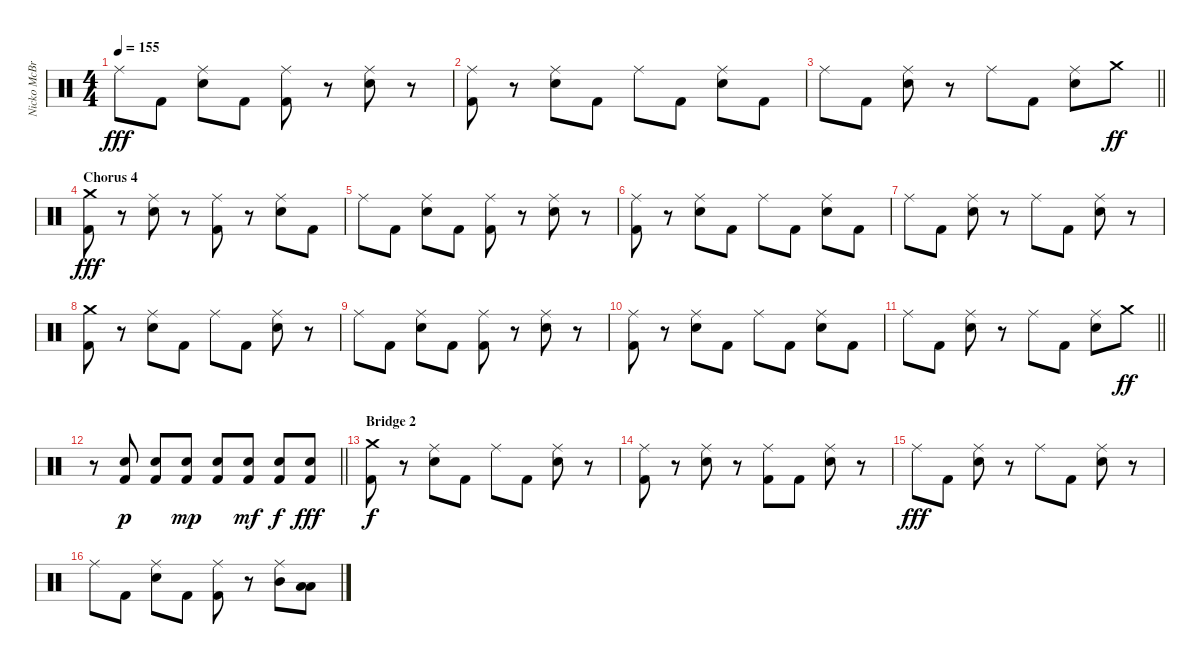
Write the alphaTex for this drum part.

\track ("Nicko McBrain" "Nicko McBr") {instrument percussion}
\staff {score}
\articulation defaults
\ts (4 4)
\tempo 155
\clef neutral
\ks c "Ride (middle)".8{dy fff} "Kick (hit) 2".8
("Ride (middle)" "Snare (hit) 2").8 "Kick (hit) 2".8 ("Ride (middle)" "Kick (hit) 2").8 r.8 ("Ride (middle)" "Snare (hit) 2").8 r.8 |
("Ride (middle)" "Kick (hit) 2").8 r.8 ("Ride (middle)" "Snare (hit) 2").8 "Kick (hit) 2".8 "Ride (middle)".8 "Kick (hit) 2".8 ("Ride (middle)" "Snare (hit) 2").8 "Kick (hit) 2".8 |
\barLineRight lightlight "Ride (middle)".8 "Kick (hit) 2".8
("Ride (middle)" "Snare (hit) 2").8 r.8 "Ride (middle)".8 "Kick (hit) 2".8 ("Ride (middle)" "Snare (hit) 2").8 "Crash medium (hit)".8{dy ff} |
\section ("" "Chorus 4")
("Crash medium (hit)" "Kick (hit) 2").8{dy fff} r.8 ("Ride (middle)" "Snare (hit) 2").8 r.8 ("Ride (middle)" "Kick (hit) 2").8 r.8 ("Ride (middle)" "Snare (hit) 2").8 "Kick (hit) 2".8 |
"Ride (middle)".8 "Kick (hit) 2".8 ("Ride (middle)" "Snare (hit) 2").8 "Kick (hit) 2".8 ("Ride (middle)" "Kick (hit) 2").8 r.8 ("Ride (middle)" "Snare (hit) 2").8 r.8 |
("Ride (middle)" "Kick (hit) 2").8 r.8 ("Ride (middle)" "Snare (hit) 2").8 "Kick (hit) 2".8 "Ride (middle)".8 "Kick (hit) 2".8 ("Ride (middle)" "Snare (hit) 2").8 "Kick (hit) 2".8 |
"Ride (middle)".8 "Kick (hit) 2".8 ("Ride (middle)" "Snare (hit) 2").8 r.8 "Ride (middle)".8 "Kick (hit) 2".8 ("Ride (middle)" "Snare (hit) 2").8 r.8 |
("Crash medium (hit)" "Kick (hit) 2").8 r.8 ("Ride (middle)" "Snare (hit) 2").8 "Kick (hit) 2".8 "Ride (middle)".8 "Kick (hit) 2".8 ("Ride (middle)" "Snare (hit) 2").8 r.8 |
"Ride (middle)".8 "Kick (hit) 2".8 ("Ride (middle)" "Snare (hit) 2").8 "Kick (hit) 2".8 ("Ride (middle)" "Kick (hit) 2").8 r.8 ("Ride (middle)" "Snare (hit) 2").8 r.8 |
("Ride (middle)" "Kick (hit) 2").8 r.8 ("Ride (middle)" "Snare (hit) 2").8 "Kick (hit) 2".8 "Ride (middle)".8 "Kick (hit) 2".8 ("Ride (middle)" "Snare (hit) 2").8 "Kick (hit) 2".8 |
\barLineRight lightlight "Ride (middle)".8 "Kick (hit) 2".8
("Ride (middle)" "Snare (hit) 2").8 r.8 "Ride (middle)".8 "Kick (hit) 2".8 ("Ride (middle)" "Snare (hit) 2").8 "Crash medium (hit)".8{dy ff} |
\barLineRight lightlight
r.8 ("Snare (hit) 2" "Kick (hit) 2").8{dy p} ("Snare (hit) 2" "Kick (hit) 2").8 ("Snare (hit) 2" "Kick (hit) 2").8{dy mp} ("Snare (hit) 2" "Kick (hit) 2").8 ("Snare (hit) 2" "Kick (hit) 2").8{dy mf} ("Snare (hit) 2" "Kick (hit) 2").8{dy f} ("Snare (hit) 2" "Kick (hit) 2").8{dy fff} |
\section ("" "Bridge 2")
("Crash medium (hit)" "Kick (hit) 2").8{dy f} r.8 ("Ride (middle)" "Snare (hit) 2").8 "Kick (hit) 2".8 "Ride (middle)".8 "Kick (hit) 2".8 ("Ride (middle)" "Snare (hit) 2").8 r.8 |
("Ride (middle)" "Kick (hit) 2").8 r.8 ("Ride (middle)" "Snare (hit) 2").8 r.8 ("Ride (middle)" "Kick (hit) 2").8 "Kick (hit) 2".8 ("Ride (middle)" "Snare (hit) 2").8 r.8 |
"Ride (middle)".8{dy fff} "Kick (hit) 2".8 ("Ride (middle)" "Snare (hit) 2").8 r.8 "Ride (middle)".8 "Kick (hit) 2".8 ("Ride (middle)" "Snare (hit) 2").8 r.8 |
"Ride (middle)".8 "Kick (hit) 2".8 ("Ride (middle)" "Snare (hit) 2").8 "Kick (hit) 2".8 ("Ride (middle)" "Kick (hit) 2").8 r.8 ("Ride (middle)" "Mid Tom (hit)").8 ("Low Floor Tom (hit)" "Low Floor Tom (hit)").8
